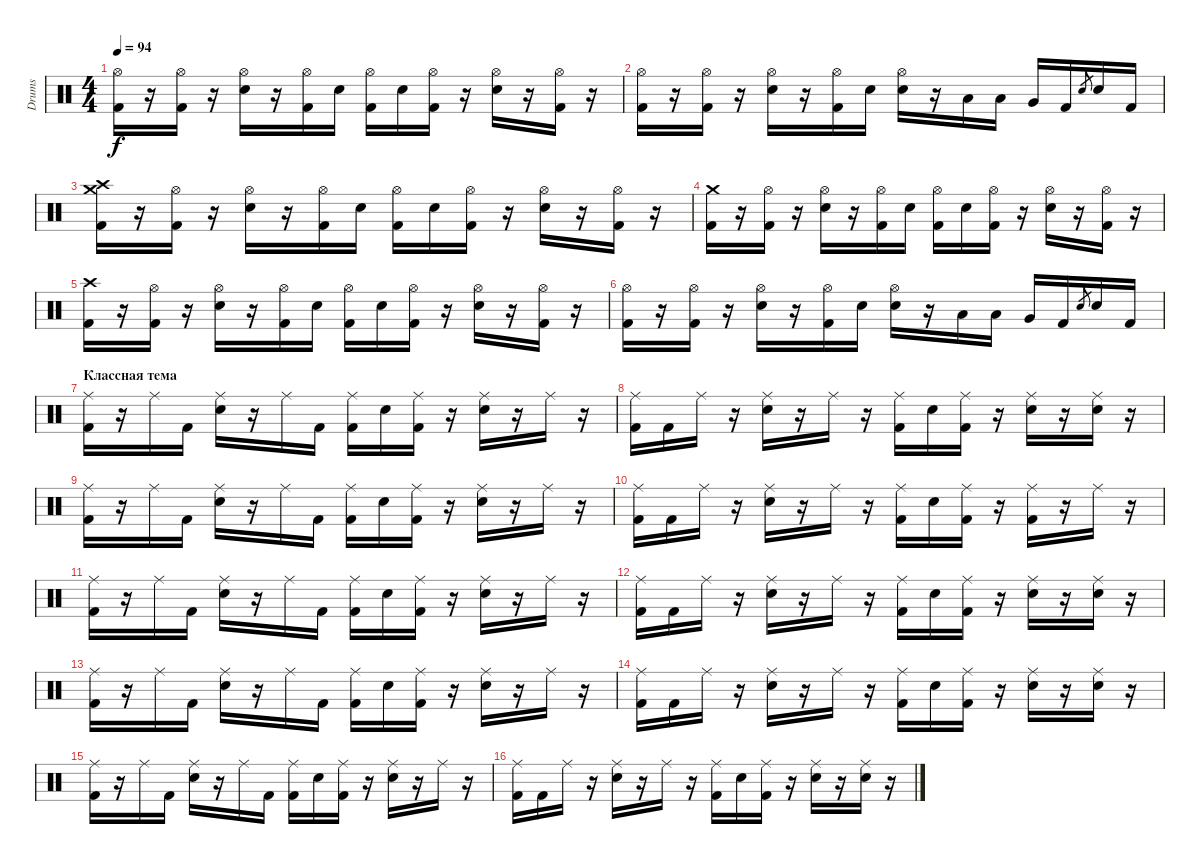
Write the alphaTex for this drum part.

\track ("Drums" "Drums") {instrument percussion}
\staff {score}
\articulation defaults
\ts (4 4)
\tempo 94
\clef neutral
\ks c
("Hi-Hat (open)" "Kick (hit) 2").16{dy f} r.16 ("Hi-Hat (open)" "Kick (hit) 2").16 r.16 ("Hi-Hat (open)" "Snare (hit) 2").16 r.16 ("Hi-Hat (open)" "Kick (hit) 2").16 "Snare (hit) 2".16 ("Hi-Hat (open)" "Kick (hit) 2").16 "Snare (hit) 2".16 ("Hi-Hat (open)" "Kick (hit) 2").16 r.16 ("Hi-Hat (open)" "Snare (hit) 2").16 r.16 ("Hi-Hat (open)" "Kick (hit) 2").16 r.16 |
("Hi-Hat (open)" "Kick (hit) 2").16 r.16 ("Hi-Hat (open)" "Kick (hit) 2").16 r.16 ("Hi-Hat (open)" "Snare (hit) 2").16 r.16 ("Hi-Hat (open)" "Kick (hit) 2").16 "Snare (hit) 2".16 ("Hi-Hat (open)" "Snare (hit) 2").16 r.16 "Low Tom (hit)".16 "Low Tom (hit)".16 "Very Low Tom (hit)".16 "Kick (hit) 2".16 "Snare (hit) 2".8{gr} "Snare (hit) 2".16 "Kick (hit) 2".16 |
("Crash high (hit)" "Crash medium (hit)" "Kick (hit) 2").16 r.16 ("Hi-Hat (open)" "Kick (hit) 2").16 r.16 ("Hi-Hat (open)" "Snare (hit) 2").16 r.16 ("Hi-Hat (open)" "Kick (hit) 2").16 "Snare (hit) 2".16 ("Hi-Hat (open)" "Kick (hit) 2").16 "Snare (hit) 2".16 ("Hi-Hat (open)" "Kick (hit) 2").16 r.16 ("Hi-Hat (open)" "Snare (hit) 2").16 r.16 ("Hi-Hat (open)" "Kick (hit) 2").16 r.16 |
("Crash medium (hit)" "Kick (hit) 2").16 r.16 ("Hi-Hat (open)" "Kick (hit) 2").16 r.16 ("Hi-Hat (open)" "Snare (hit) 2").16 r.16 ("Hi-Hat (open)" "Kick (hit) 2").16 "Snare (hit) 2".16 ("Hi-Hat (open)" "Kick (hit) 2").16 "Snare (hit) 2".16 ("Hi-Hat (open)" "Kick (hit) 2").16 r.16 ("Hi-Hat (open)" "Snare (hit) 2").16 r.16 ("Hi-Hat (open)" "Kick (hit) 2").16 r.16 |
("Crash high (hit)" "Kick (hit) 2").16 r.16 ("Hi-Hat (open)" "Kick (hit) 2").16 r.16 ("Hi-Hat (open)" "Snare (hit) 2").16 r.16 ("Hi-Hat (open)" "Kick (hit) 2").16 "Snare (hit) 2".16 ("Hi-Hat (open)" "Kick (hit) 2").16 "Snare (hit) 2".16 ("Hi-Hat (open)" "Kick (hit) 2").16 r.16 ("Hi-Hat (open)" "Snare (hit) 2").16 r.16 ("Hi-Hat (open)" "Kick (hit) 2").16 r.16 |
("Hi-Hat (open)" "Kick (hit) 2").16 r.16 ("Hi-Hat (open)" "Kick (hit) 2").16 r.16 ("Hi-Hat (open)" "Snare (hit) 2").16 r.16 ("Hi-Hat (open)" "Kick (hit) 2").16 "Snare (hit) 2".16 ("Hi-Hat (open)" "Snare (hit) 2").16 r.16 "Low Tom (hit)".16 "Low Tom (hit)".16 "Very Low Tom (hit)".16 "Kick (hit) 2".16 "Snare (hit) 2".8{gr} "Snare (hit) 2".16 "Kick (hit) 2".16 |
\section ("" "Классная тема")
("Ride (middle)" "Kick (hit) 2").16 r.16 "Ride (middle)".16 "Kick (hit) 2".16 ("Ride (middle)" "Snare (hit) 2").16 r.16 "Ride (middle)".16 "Kick (hit) 2".16 ("Ride (middle)" "Kick (hit) 2").16 "Snare (hit) 2".16 ("Ride (middle)" "Kick (hit) 2").16 r.16 ("Ride (middle)" "Snare (hit) 2").16 r.16 "Ride (middle)".16 r.16 |
("Ride (middle)" "Kick (hit) 2").16 "Kick (hit) 2".16 "Ride (middle)".16 r.16 ("Ride (middle)" "Snare (hit) 2").16 r.16 "Ride (middle)".16 r.16 ("Ride (middle)" "Kick (hit) 2").16 "Snare (hit) 2".16 ("Ride (middle)" "Kick (hit) 2").16 r.16 ("Ride (middle)" "Snare (hit) 2").16 r.16 ("Ride (middle)" "Snare (hit) 2").16 r.16 |
("Ride (middle)" "Kick (hit) 2").16 r.16 "Ride (middle)".16 "Kick (hit) 2".16 ("Ride (middle)" "Snare (hit) 2").16 r.16 "Ride (middle)".16 "Kick (hit) 2".16 ("Ride (middle)" "Kick (hit) 2").16 "Snare (hit) 2".16 ("Ride (middle)" "Kick (hit) 2").16 r.16 ("Ride (middle)" "Snare (hit) 2").16 r.16 "Ride (middle)".16 r.16 |
("Ride (middle)" "Kick (hit) 2").16 "Kick (hit) 2".16 "Ride (middle)".16 r.16 ("Ride (middle)" "Snare (hit) 2").16 r.16 "Ride (middle)".16 r.16 ("Ride (middle)" "Kick (hit) 2").16 "Snare (hit) 2".16 ("Ride (middle)" "Kick (hit) 2").16 r.16 ("Ride (middle)" "Kick (hit) 2").16 r.16 "Ride (middle)".16 r.16 |
("Ride (middle)" "Kick (hit) 2").16 r.16 "Ride (middle)".16 "Kick (hit) 2".16 ("Ride (middle)" "Snare (hit) 2").16 r.16 "Ride (middle)".16 "Kick (hit) 2".16 ("Ride (middle)" "Kick (hit) 2").16 "Snare (hit) 2".16 ("Ride (middle)" "Kick (hit) 2").16 r.16 ("Ride (middle)" "Snare (hit) 2").16 r.16 "Ride (middle)".16 r.16 |
("Ride (middle)" "Kick (hit) 2").16 "Kick (hit) 2".16 "Ride (middle)".16 r.16 ("Ride (middle)" "Snare (hit) 2").16 r.16 "Ride (middle)".16 r.16 ("Ride (middle)" "Kick (hit) 2").16 "Snare (hit) 2".16 ("Ride (middle)" "Kick (hit) 2").16 r.16 ("Ride (middle)" "Snare (hit) 2").16 r.16 ("Ride (middle)" "Snare (hit) 2").16 r.16 |
("Ride (middle)" "Kick (hit) 2").16 r.16 "Ride (middle)".16 "Kick (hit) 2".16 ("Ride (middle)" "Snare (hit) 2").16 r.16 "Ride (middle)".16 "Kick (hit) 2".16 ("Ride (middle)" "Kick (hit) 2").16 "Snare (hit) 2".16 ("Ride (middle)" "Kick (hit) 2").16 r.16 ("Ride (middle)" "Snare (hit) 2").16 r.16 "Ride (middle)".16 r.16 |
("Ride (middle)" "Kick (hit) 2").16 "Kick (hit) 2".16 "Ride (middle)".16 r.16 ("Ride (middle)" "Snare (hit) 2").16 r.16 "Ride (middle)".16 r.16 ("Ride (middle)" "Kick (hit) 2").16 "Snare (hit) 2".16 ("Ride (middle)" "Kick (hit) 2").16 r.16 ("Ride (middle)" "Snare (hit) 2").16 r.16 ("Ride (middle)" "Snare (hit) 2").16 r.16 |
("Ride (middle)" "Kick (hit) 2").16 r.16 "Ride (middle)".16 "Kick (hit) 2".16 ("Ride (middle)" "Snare (hit) 2").16 r.16 "Ride (middle)".16 "Kick (hit) 2".16 ("Ride (middle)" "Kick (hit) 2").16 "Snare (hit) 2".16 ("Ride (middle)" "Kick (hit) 2").16 r.16 ("Ride (middle)" "Snare (hit) 2").16 r.16 "Ride (middle)".16 r.16 |
("Ride (middle)" "Kick (hit) 2").16 "Kick (hit) 2".16 "Ride (middle)".16 r.16 ("Ride (middle)" "Snare (hit) 2").16 r.16 "Ride (middle)".16 r.16 ("Ride (middle)" "Kick (hit) 2").16 "Snare (hit) 2".16 ("Ride (middle)" "Kick (hit) 2").16 r.16 ("Ride (middle)" "Snare (hit) 2").16 r.16 ("Ride (middle)" "Snare (hit) 2").16 r.16
